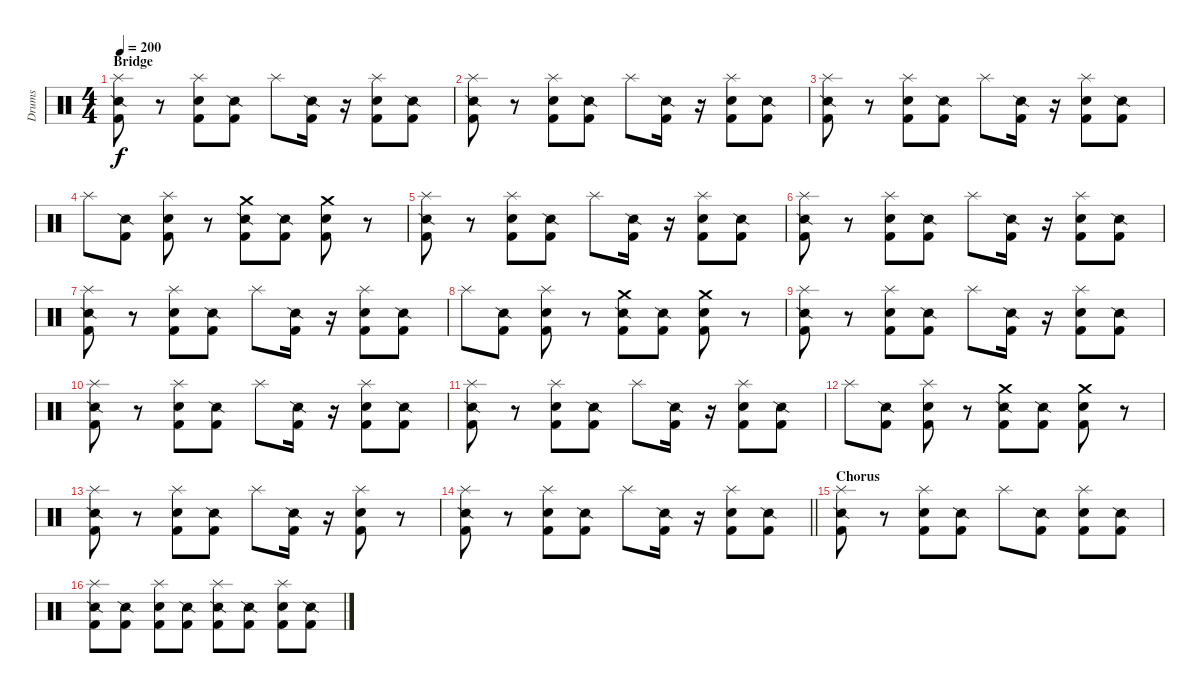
\track ("Drums" "Drums") {instrument percussion}
\staff {score}
\articulation defaults
\ts (4 4)
\section ("" "Bridge")
\tempo 200
\clef neutral
\ks c
("Splash (hit)" "Snare (side stick) 2" "Kick (hit) 2").8{dy f} r.8 ("Splash (hit)" "Snare (hit) 2" "Kick (hit) 2").8 ("Snare (side stick) 2" "Kick (hit) 2").8 "Splash (hit)".8 ("Snare (side stick) 2" "Kick (hit) 2").16 r.16 ("Splash (hit)" "Snare (hit) 2" "Kick (hit) 2").8 ("Snare (side stick) 2" "Kick (hit) 2").8 |
("Splash (hit)" "Snare (side stick) 2" "Kick (hit) 2").8 r.8 ("Splash (hit)" "Snare (hit) 2" "Kick (hit) 2").8 ("Snare (side stick) 2" "Kick (hit) 2").8 "Splash (hit)".8 ("Snare (side stick) 2" "Kick (hit) 2").16 r.16 ("Splash (hit)" "Snare (hit) 2" "Kick (hit) 2").8 ("Snare (side stick) 2" "Kick (hit) 2").8 |
("Splash (hit)" "Snare (side stick) 2" "Kick (hit) 2").8 r.8 ("Splash (hit)" "Snare (hit) 2" "Kick (hit) 2").8 ("Snare (side stick) 2" "Kick (hit) 2").8 "Splash (hit)".8 ("Snare (side stick) 2" "Kick (hit) 2").16 r.16 ("Splash (hit)" "Snare (hit) 2" "Kick (hit) 2").8 ("Snare (side stick) 2" "Kick (hit) 2").8 |
"Splash (hit)".8 ("Snare (side stick) 2" "Kick (hit) 2").8 ("Splash (hit)" "Snare (hit) 2" "Kick (hit) 2").8 r.8 ("Crash medium (hit)" "Snare (side stick) 2" "Kick (hit) 2").8 ("Snare (side stick) 2" "Kick (hit) 2").8 ("Crash medium (hit)" "Snare (hit) 2" "Kick (hit) 2").8 r.8 |
("Splash (hit)" "Snare (side stick) 2" "Kick (hit) 2").8 r.8 ("Splash (hit)" "Snare (hit) 2" "Kick (hit) 2").8 ("Snare (side stick) 2" "Kick (hit) 2").8 "Splash (hit)".8 ("Snare (side stick) 2" "Kick (hit) 2").16 r.16 ("Splash (hit)" "Snare (hit) 2" "Kick (hit) 2").8 ("Snare (side stick) 2" "Kick (hit) 2").8 |
("Splash (hit)" "Snare (side stick) 2" "Kick (hit) 2").8 r.8 ("Splash (hit)" "Snare (hit) 2" "Kick (hit) 2").8 ("Snare (side stick) 2" "Kick (hit) 2").8 "Splash (hit)".8 ("Snare (side stick) 2" "Kick (hit) 2").16 r.16 ("Splash (hit)" "Snare (hit) 2" "Kick (hit) 2").8 ("Snare (side stick) 2" "Kick (hit) 2").8 |
("Splash (hit)" "Snare (side stick) 2" "Kick (hit) 2").8 r.8 ("Splash (hit)" "Snare (hit) 2" "Kick (hit) 2").8 ("Snare (side stick) 2" "Kick (hit) 2").8 "Splash (hit)".8 ("Snare (side stick) 2" "Kick (hit) 2").16 r.16 ("Splash (hit)" "Snare (hit) 2" "Kick (hit) 2").8 ("Snare (side stick) 2" "Kick (hit) 2").8 |
"Splash (hit)".8 ("Snare (side stick) 2" "Kick (hit) 2").8 ("Splash (hit)" "Snare (hit) 2" "Kick (hit) 2").8 r.8 ("Crash medium (hit)" "Snare (side stick) 2" "Kick (hit) 2").8 ("Snare (side stick) 2" "Kick (hit) 2").8 ("Crash medium (hit)" "Snare (hit) 2" "Kick (hit) 2").8 r.8 |
("Splash (hit)" "Snare (side stick) 2" "Kick (hit) 2").8 r.8 ("Splash (hit)" "Snare (hit) 2" "Kick (hit) 2").8 ("Snare (side stick) 2" "Kick (hit) 2").8 "Splash (hit)".8 ("Snare (side stick) 2" "Kick (hit) 2").16 r.16 ("Splash (hit)" "Snare (hit) 2" "Kick (hit) 2").8 ("Snare (side stick) 2" "Kick (hit) 2").8 |
("Splash (hit)" "Snare (side stick) 2" "Kick (hit) 2").8 r.8 ("Splash (hit)" "Snare (hit) 2" "Kick (hit) 2").8 ("Snare (side stick) 2" "Kick (hit) 2").8 "Splash (hit)".8 ("Snare (side stick) 2" "Kick (hit) 2").16 r.16 ("Splash (hit)" "Snare (hit) 2" "Kick (hit) 2").8 ("Snare (side stick) 2" "Kick (hit) 2").8 |
("Splash (hit)" "Snare (side stick) 2" "Kick (hit) 2").8 r.8 ("Splash (hit)" "Snare (hit) 2" "Kick (hit) 2").8 ("Snare (side stick) 2" "Kick (hit) 2").8 "Splash (hit)".8 ("Snare (side stick) 2" "Kick (hit) 2").16 r.16 ("Splash (hit)" "Snare (hit) 2" "Kick (hit) 2").8 ("Snare (side stick) 2" "Kick (hit) 2").8 |
"Splash (hit)".8 ("Snare (side stick) 2" "Kick (hit) 2").8 ("Splash (hit)" "Snare (hit) 2" "Kick (hit) 2").8 r.8 ("Crash medium (hit)" "Snare (side stick) 2" "Kick (hit) 2").8 ("Snare (side stick) 2" "Kick (hit) 2").8 ("Crash medium (hit)" "Snare (hit) 2" "Kick (hit) 2").8 r.8 |
("Splash (hit)" "Snare (side stick) 2" "Kick (hit) 2").8 r.8 ("Splash (hit)" "Snare (hit) 2" "Kick (hit) 2").8 ("Snare (side stick) 2" "Kick (hit) 2").8 "Splash (hit)".8 ("Snare (side stick) 2" "Kick (hit) 2").16 r.16 ("Splash (hit)" "Snare (hit) 2" "Kick (hit) 2").8 r.8 |
\barLineRight lightlight
("Splash (hit)" "Snare (side stick) 2" "Kick (hit) 2").8 r.8 ("Splash (hit)" "Snare (hit) 2" "Kick (hit) 2").8 ("Snare (side stick) 2" "Kick (hit) 2").8 "Splash (hit)".8 ("Snare (side stick) 2" "Kick (hit) 2").16 r.16 ("Splash (hit)" "Snare (hit) 2" "Kick (hit) 2").8 ("Snare (side stick) 2" "Kick (hit) 2").8 |
\section ("" "Chorus")
("Splash (hit)" "Snare (side stick) 2" "Kick (hit) 2").8 r.8 ("Splash (hit)" "Snare (hit) 2" "Kick (hit) 2").8 ("Snare (side stick) 2" "Kick (hit) 2").8 "Splash (hit)".8 ("Snare (side stick) 2" "Kick (hit) 2").8 ("Splash (hit)" "Snare (hit) 2" "Kick (hit) 2").8 ("Snare (side stick) 2" "Kick (hit) 2").8 |
("Splash (hit)" "Snare (side stick) 2" "Kick (hit) 2").8 ("Snare (side stick) 2" "Kick (hit) 2").8 ("Splash (hit)" "Snare (hit) 2" "Kick (hit) 2").8 ("Snare (side stick) 2" "Kick (hit) 2").8 ("Splash (hit)" "Snare (side stick) 2" "Kick (hit) 2").8 ("Snare (side stick) 2" "Kick (hit) 2").8 ("Splash (hit)" "Snare (hit) 2" "Kick (hit) 2").8 ("Snare (side stick) 2" "Kick (hit) 2").8
